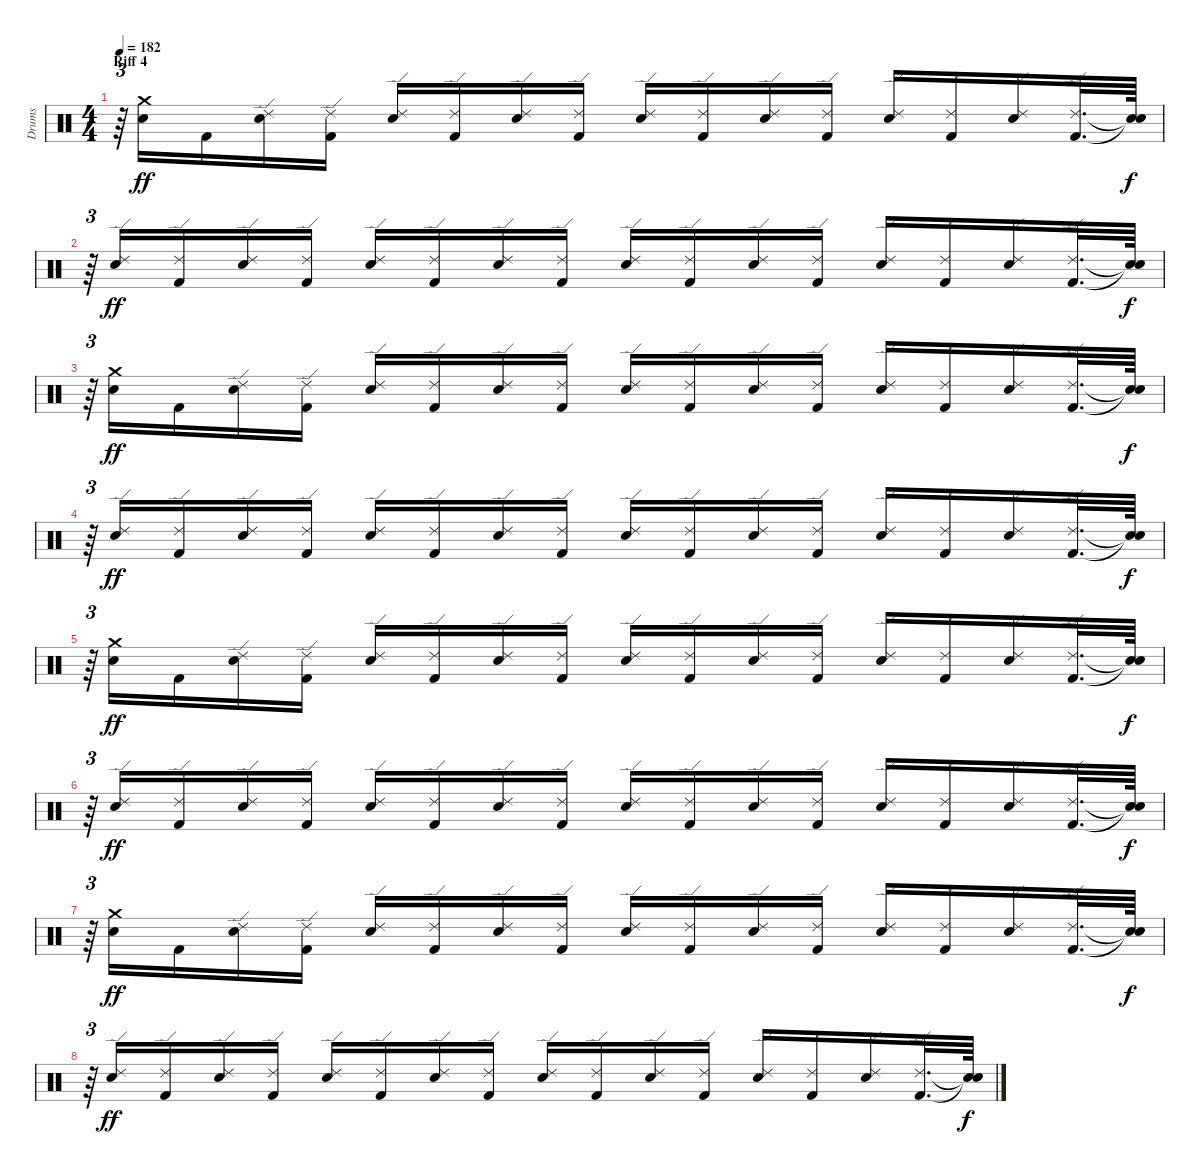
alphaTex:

\track ("Drums" "Drums") {instrument percussion}
\staff {score}
\articulation defaults
\ts (4 4)
\section ("" "Riff 4")
\tempo 182
\clef neutral
\ks c
r.64{tu (3 2) dy f} ("Crash medium (hit)" "Snare (hit) 2").16{dy ff} "Kick (hit) 2".16 ("Snare (hit) 2" "Ride (edge) 2").16 ("Kick (hit) 2" "Ride (edge) 2").16 ("Snare (hit) 2" "Ride (edge) 2").16 ("Kick (hit) 2" "Ride (edge) 2").16 ("Snare (hit) 2" "Ride (edge) 2").16 ("Kick (hit) 2" "Ride (edge) 2").16 ("Snare (hit) 2" "Ride (edge) 2").16 ("Kick (hit) 2" "Ride (edge) 2").16 ("Snare (hit) 2" "Ride (edge) 2").16 ("Kick (hit) 2" "Ride (edge) 2").16 ("Snare (hit) 2" "Ride (edge) 2").16 ("Kick (hit) 2" "Ride (edge) 2").16 ("Snare (hit) 2" "Ride (edge) 2").16 ("Kick (hit) 2" "Ride (edge) 2").32{d} ("Snare (hit)"{t} "Snare (hit)"{t}).64{dy f} |
r.64{tu (3 2)} ("Snare (hit) 2" "Ride (edge) 2").16{dy ff} ("Kick (hit) 2" "Ride (edge) 2").16 ("Snare (hit) 2" "Ride (edge) 2").16 ("Kick (hit) 2" "Ride (edge) 2").16 ("Snare (hit) 2" "Ride (edge) 2").16 ("Kick (hit) 2" "Ride (edge) 2").16 ("Snare (hit) 2" "Ride (edge) 2").16 ("Kick (hit) 2" "Ride (edge) 2").16 ("Snare (hit) 2" "Ride (edge) 2").16 ("Kick (hit) 2" "Ride (edge) 2").16 ("Snare (hit) 2" "Ride (edge) 2").16 ("Kick (hit) 2" "Ride (edge) 2").16 ("Snare (hit) 2" "Ride (edge) 2").16 ("Kick (hit) 2" "Ride (edge) 2").16 ("Snare (hit) 2" "Ride (edge) 2").16 ("Kick (hit) 2" "Ride (edge) 2").32{d} ("Snare (hit)"{t} "Snare (hit)"{t}).64{dy f} |
r.64{tu (3 2)} ("Crash medium (hit)" "Snare (hit) 2").16{dy ff} "Kick (hit) 2".16 ("Snare (hit) 2" "Ride (edge) 2").16 ("Kick (hit) 2" "Ride (edge) 2").16 ("Snare (hit) 2" "Ride (edge) 2").16 ("Kick (hit) 2" "Ride (edge) 2").16 ("Snare (hit) 2" "Ride (edge) 2").16 ("Kick (hit) 2" "Ride (edge) 2").16 ("Snare (hit) 2" "Ride (edge) 2").16 ("Kick (hit) 2" "Ride (edge) 2").16 ("Snare (hit) 2" "Ride (edge) 2").16 ("Kick (hit) 2" "Ride (edge) 2").16 ("Snare (hit) 2" "Ride (edge) 2").16 ("Kick (hit) 2" "Ride (edge) 2").16 ("Snare (hit) 2" "Ride (edge) 2").16 ("Kick (hit) 2" "Ride (edge) 2").32{d} ("Snare (hit)"{t} "Snare (hit)"{t}).64{dy f} |
r.64{tu (3 2)} ("Snare (hit) 2" "Ride (edge) 2").16{dy ff} ("Kick (hit) 2" "Ride (edge) 2").16 ("Snare (hit) 2" "Ride (edge) 2").16 ("Kick (hit) 2" "Ride (edge) 2").16 ("Snare (hit) 2" "Ride (edge) 2").16 ("Kick (hit) 2" "Ride (edge) 2").16 ("Snare (hit) 2" "Ride (edge) 2").16 ("Kick (hit) 2" "Ride (edge) 2").16 ("Snare (hit) 2" "Ride (edge) 2").16 ("Kick (hit) 2" "Ride (edge) 2").16 ("Snare (hit) 2" "Ride (edge) 2").16 ("Kick (hit) 2" "Ride (edge) 2").16 ("Snare (hit) 2" "Ride (edge) 2").16 ("Kick (hit) 2" "Ride (edge) 2").16 ("Snare (hit) 2" "Ride (edge) 2").16 ("Kick (hit) 2" "Ride (edge) 2").32{d} ("Snare (hit)"{t} "Snare (hit)"{t}).64{dy f} |
r.64{tu (3 2)} ("Crash medium (hit)" "Snare (hit) 2").16{dy ff} "Kick (hit) 2".16 ("Snare (hit) 2" "Ride (edge) 2").16 ("Kick (hit) 2" "Ride (edge) 2").16 ("Snare (hit) 2" "Ride (edge) 2").16 ("Kick (hit) 2" "Ride (edge) 2").16 ("Snare (hit) 2" "Ride (edge) 2").16 ("Kick (hit) 2" "Ride (edge) 2").16 ("Snare (hit) 2" "Ride (edge) 2").16 ("Kick (hit) 2" "Ride (edge) 2").16 ("Snare (hit) 2" "Ride (edge) 2").16 ("Kick (hit) 2" "Ride (edge) 2").16 ("Snare (hit) 2" "Ride (edge) 2").16 ("Kick (hit) 2" "Ride (edge) 2").16 ("Snare (hit) 2" "Ride (edge) 2").16 ("Kick (hit) 2" "Ride (edge) 2").32{d} ("Snare (hit)"{t} "Snare (hit)"{t}).64{dy f} |
r.64{tu (3 2)} ("Snare (hit) 2" "Ride (edge) 2").16{dy ff} ("Kick (hit) 2" "Ride (edge) 2").16 ("Snare (hit) 2" "Ride (edge) 2").16 ("Kick (hit) 2" "Ride (edge) 2").16 ("Snare (hit) 2" "Ride (edge) 2").16 ("Kick (hit) 2" "Ride (edge) 2").16 ("Snare (hit) 2" "Ride (edge) 2").16 ("Kick (hit) 2" "Ride (edge) 2").16 ("Snare (hit) 2" "Ride (edge) 2").16 ("Kick (hit) 2" "Ride (edge) 2").16 ("Snare (hit) 2" "Ride (edge) 2").16 ("Kick (hit) 2" "Ride (edge) 2").16 ("Snare (hit) 2" "Ride (edge) 2").16 ("Kick (hit) 2" "Ride (edge) 2").16 ("Snare (hit) 2" "Ride (edge) 2").16 ("Kick (hit) 2" "Ride (edge) 2").32{d} ("Snare (hit)"{t} "Snare (hit)"{t}).64{dy f} |
r.64{tu (3 2)} ("Crash medium (hit)" "Snare (hit) 2").16{dy ff} "Kick (hit) 2".16 ("Snare (hit) 2" "Ride (edge) 2").16 ("Kick (hit) 2" "Ride (edge) 2").16 ("Snare (hit) 2" "Ride (edge) 2").16 ("Kick (hit) 2" "Ride (edge) 2").16 ("Snare (hit) 2" "Ride (edge) 2").16 ("Kick (hit) 2" "Ride (edge) 2").16 ("Snare (hit) 2" "Ride (edge) 2").16 ("Kick (hit) 2" "Ride (edge) 2").16 ("Snare (hit) 2" "Ride (edge) 2").16 ("Kick (hit) 2" "Ride (edge) 2").16 ("Snare (hit) 2" "Ride (edge) 2").16 ("Kick (hit) 2" "Ride (edge) 2").16 ("Snare (hit) 2" "Ride (edge) 2").16 ("Kick (hit) 2" "Ride (edge) 2").32{d} ("Snare (hit)"{t} "Snare (hit)"{t}).64{dy f} |
r.64{tu (3 2)} ("Snare (hit) 2" "Ride (edge) 2").16{dy ff} ("Kick (hit) 2" "Ride (edge) 2").16 ("Snare (hit) 2" "Ride (edge) 2").16 ("Kick (hit) 2" "Ride (edge) 2").16 ("Snare (hit) 2" "Ride (edge) 2").16 ("Kick (hit) 2" "Ride (edge) 2").16 ("Snare (hit) 2" "Ride (edge) 2").16 ("Kick (hit) 2" "Ride (edge) 2").16 ("Snare (hit) 2" "Ride (edge) 2").16 ("Kick (hit) 2" "Ride (edge) 2").16 ("Snare (hit) 2" "Ride (edge) 2").16 ("Kick (hit) 2" "Ride (edge) 2").16 ("Snare (hit) 2" "Ride (edge) 2").16 ("Kick (hit) 2" "Ride (edge) 2").16 ("Snare (hit) 2" "Ride (edge) 2").16 ("Kick (hit) 2" "Ride (edge) 2").32{d} ("Snare (hit)"{t} "Snare (hit)"{t}).64{dy f}
